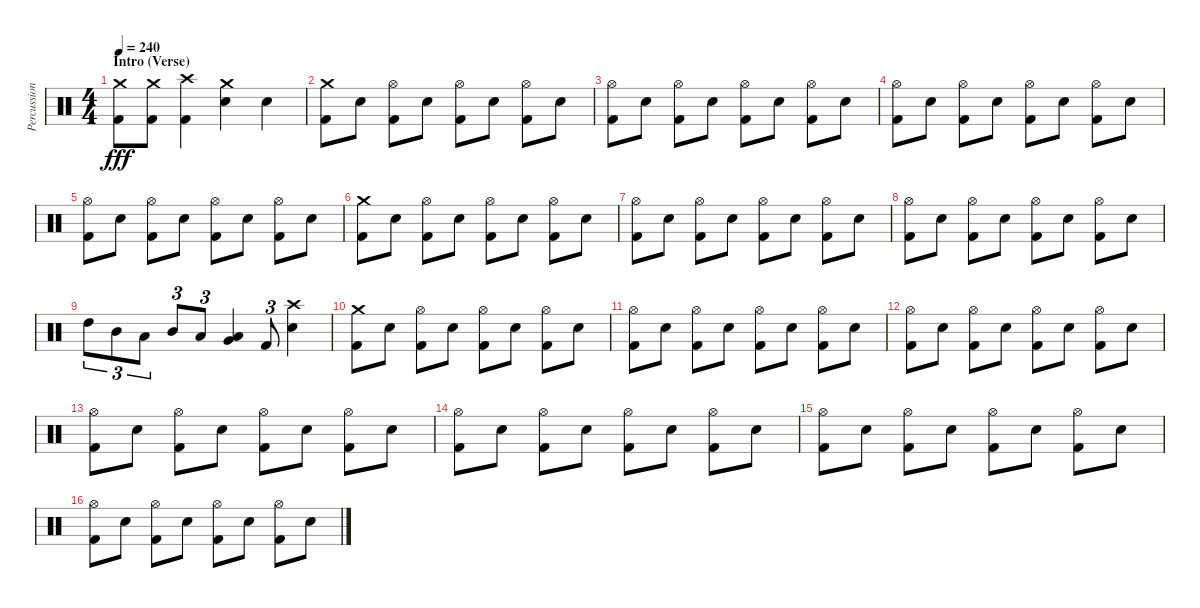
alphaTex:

\track ("Percussion" "Percussion") {instrument percussion}
\staff {score}
\articulation defaults
\ts (4 4)
\section ("" "Intro (Verse)")
\tempo 240
\clef neutral
\ks c
("Kick (hit) 2" "Crash medium (hit)").8{dy fff} ("Kick (hit) 2" "Crash medium (hit)").8 ("Kick (hit) 2" "Crash high (hit)").4 ("Electric Snare (hit)" "Crash medium (hit)").4 "Electric Snare (hit)".4 |
("Kick (hit) 2" "Crash medium (hit)").8 "Electric Snare (hit)".8 ("Kick (hit) 2" "Hi-Hat (open)").8 "Electric Snare (hit)".8 ("Kick (hit) 2" "Hi-Hat (open)").8 "Electric Snare (hit)".8 ("Kick (hit) 2" "Hi-Hat (open)").8 "Electric Snare (hit)".8 |
("Kick (hit) 2" "Hi-Hat (open)").8 "Electric Snare (hit)".8 ("Kick (hit) 2" "Hi-Hat (open)").8 "Electric Snare (hit)".8 ("Kick (hit) 2" "Hi-Hat (open)").8 "Electric Snare (hit)".8 ("Kick (hit) 2" "Hi-Hat (open)").8 "Electric Snare (hit)".8 |
("Kick (hit) 2" "Hi-Hat (open)").8 "Electric Snare (hit)".8 ("Kick (hit) 2" "Hi-Hat (open)").8 "Electric Snare (hit)".8 ("Kick (hit) 2" "Hi-Hat (open)").8 "Electric Snare (hit)".8 ("Kick (hit) 2" "Hi-Hat (open)").8 "Electric Snare (hit)".8 |
("Kick (hit) 2" "Hi-Hat (open)").8 "Electric Snare (hit)".8 ("Kick (hit) 2" "Hi-Hat (open)").8 "Electric Snare (hit)".8 ("Kick (hit) 2" "Hi-Hat (open)").8 "Electric Snare (hit)".8 ("Kick (hit) 2" "Hi-Hat (open)").8 "Electric Snare (hit)".8 |
("Kick (hit) 2" "Crash medium (hit)").8 "Electric Snare (hit)".8 ("Kick (hit) 2" "Hi-Hat (open)").8 "Electric Snare (hit)".8 ("Kick (hit) 2" "Hi-Hat (open)").8 "Electric Snare (hit)".8 ("Kick (hit) 2" "Hi-Hat (open)").8 "Electric Snare (hit)".8 |
("Kick (hit) 2" "Hi-Hat (open)").8 "Electric Snare (hit)".8 ("Kick (hit) 2" "Hi-Hat (open)").8 "Electric Snare (hit)".8 ("Kick (hit) 2" "Hi-Hat (open)").8 "Electric Snare (hit)".8 ("Kick (hit) 2" "Hi-Hat (open)").8 "Electric Snare (hit)".8 |
("Kick (hit) 2" "Hi-Hat (open)").8 "Electric Snare (hit)".8 ("Kick (hit) 2" "Hi-Hat (open)").8 "Electric Snare (hit)".8 ("Kick (hit) 2" "Hi-Hat (open)").8 "Electric Snare (hit)".8 ("Kick (hit) 2" "Hi-Hat (open)").8 "Electric Snare (hit)".8 |
"High Tom (hit)".8{tu (3 2)} "Mid Tom (hit)".8{tu (3 2)} "Low Tom (hit)".8{tu (3 2)} "Mid Tom (hit)".8{tu (3 2)} "Low Tom (hit)".8{tu (3 2)} ("Low Tom (hit)" "Very Low Tom (hit)").4 "Kick (hit) 2".8{tu (3 2)} ("Electric Snare (hit)" "Crash high (hit)").4 |
("Kick (hit) 2" "Crash medium (hit)").8 "Electric Snare (hit)".8 ("Kick (hit) 2" "Hi-Hat (open)").8 "Electric Snare (hit)".8 ("Kick (hit) 2" "Hi-Hat (open)").8 "Electric Snare (hit)".8 ("Kick (hit) 2" "Hi-Hat (open)").8 "Electric Snare (hit)".8 |
("Kick (hit) 2" "Hi-Hat (open)").8 "Electric Snare (hit)".8 ("Kick (hit) 2" "Hi-Hat (open)").8 "Electric Snare (hit)".8 ("Kick (hit) 2" "Hi-Hat (open)").8 "Electric Snare (hit)".8 ("Kick (hit) 2" "Hi-Hat (open)").8 "Electric Snare (hit)".8 |
("Kick (hit) 2" "Hi-Hat (open)").8 "Electric Snare (hit)".8 ("Kick (hit) 2" "Hi-Hat (open)").8 "Electric Snare (hit)".8 ("Kick (hit) 2" "Hi-Hat (open)").8 "Electric Snare (hit)".8 ("Kick (hit) 2" "Hi-Hat (open)").8 "Electric Snare (hit)".8 |
("Kick (hit) 2" "Hi-Hat (open)").8 "Electric Snare (hit)".8 ("Kick (hit) 2" "Hi-Hat (open)").8 "Electric Snare (hit)".8 ("Kick (hit) 2" "Hi-Hat (open)").8 "Electric Snare (hit)".8 ("Kick (hit) 2" "Hi-Hat (open)").8 "Electric Snare (hit)".8 |
("Kick (hit) 2" "Hi-Hat (open)").8 "Electric Snare (hit)".8 ("Kick (hit) 2" "Hi-Hat (open)").8 "Electric Snare (hit)".8 ("Kick (hit) 2" "Hi-Hat (open)").8 "Electric Snare (hit)".8 ("Kick (hit) 2" "Hi-Hat (open)").8 "Electric Snare (hit)".8 |
("Kick (hit) 2" "Hi-Hat (open)").8 "Electric Snare (hit)".8 ("Kick (hit) 2" "Hi-Hat (open)").8 "Electric Snare (hit)".8 ("Kick (hit) 2" "Hi-Hat (open)").8 "Electric Snare (hit)".8 ("Kick (hit) 2" "Hi-Hat (open)").8 "Electric Snare (hit)".8 |
("Kick (hit) 2" "Hi-Hat (open)").8 "Electric Snare (hit)".8 ("Kick (hit) 2" "Hi-Hat (open)").8 "Electric Snare (hit)".8 ("Kick (hit) 2" "Hi-Hat (open)").8 "Electric Snare (hit)".8 ("Kick (hit) 2" "Hi-Hat (open)").8 "Electric Snare (hit)".8
